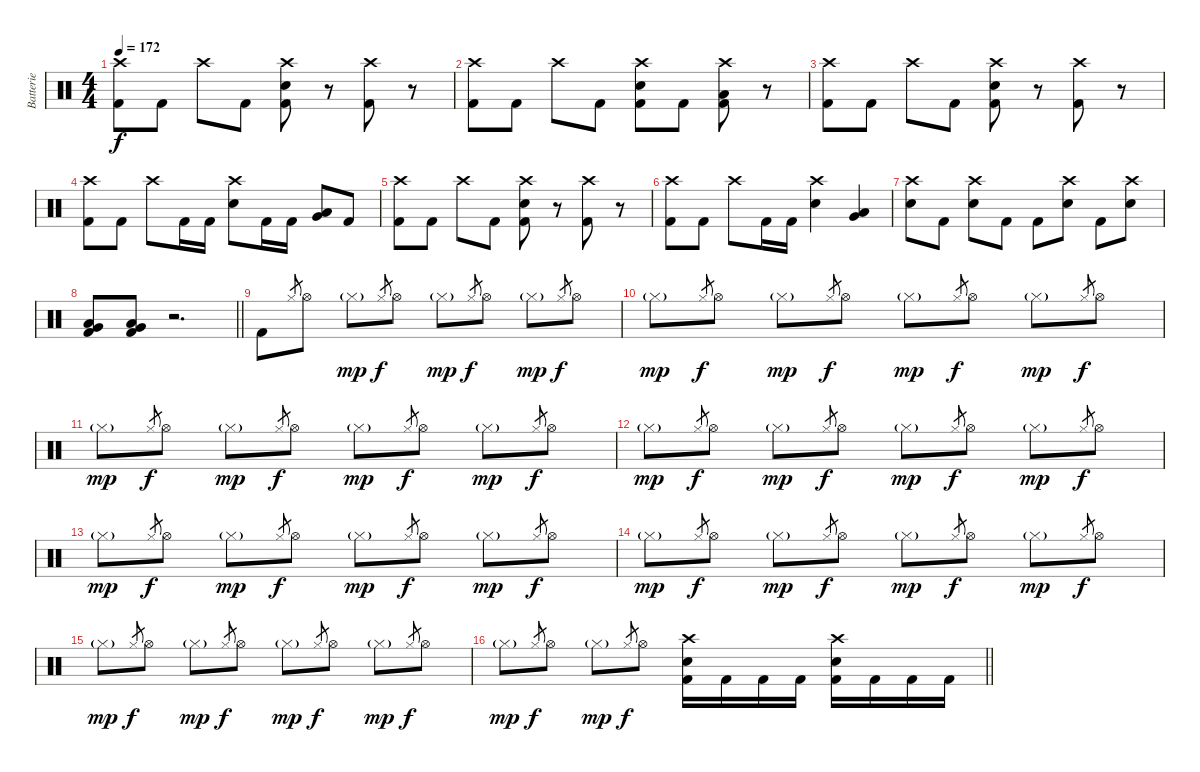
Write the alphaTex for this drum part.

\track ("Batterie" "Batterie") {instrument percussion}
\staff {score}
\articulation defaults
\ts (4 4)
\tempo 172
\clef neutral
\ks c
("Crash high (hit)" "Kick (hit) 2").8{dy f} "Kick (hit) 2".8 "Crash high (hit)".8 "Kick (hit) 2".8 ("Crash high (hit)" "Electric Snare (hit)" "Kick (hit) 2").8 r.8 ("Crash high (hit)" "Kick (hit) 2").8 r.8 |
("Crash high (hit)" "Kick (hit) 2").8 "Kick (hit) 2".8 "Crash high (hit)".8 "Kick (hit) 2".8 ("Crash high (hit)" "Electric Snare (hit)" "Kick (hit) 2").8 "Kick (hit) 2".8 ("Crash high (hit)" "Low Tom (hit)" "Kick (hit) 2").8 r.8 |
("Crash high (hit)" "Kick (hit) 2").8 "Kick (hit) 2".8 "Crash high (hit)".8 "Kick (hit) 2".8 ("Crash high (hit)" "Electric Snare (hit)" "Kick (hit) 2").8 r.8 ("Crash high (hit)" "Kick (hit) 2").8 r.8 |
("Crash high (hit)" "Kick (hit) 2").8 "Kick (hit) 2".8 "Crash high (hit)".8 "Kick (hit) 2".16 "Kick (hit) 2".16 ("Crash high (hit)" "Electric Snare (hit)").8 "Kick (hit) 2".16 "Kick (hit) 2".16 ("Low Tom (hit)" "Very Low Tom (hit)").8 "Kick (hit) 2".8 |
("Crash high (hit)" "Kick (hit) 2").8 "Kick (hit) 2".8 "Crash high (hit)".8 "Kick (hit) 2".8 ("Crash high (hit)" "Electric Snare (hit)" "Kick (hit) 2").8 r.8 ("Crash high (hit)" "Kick (hit) 2").8 r.8 |
("Crash high (hit)" "Kick (hit) 2").8 "Kick (hit) 2".8 "Crash high (hit)".8 "Kick (hit) 2".16 "Kick (hit) 2".16 ("Crash high (hit)" "Electric Snare (hit)").4 ("Low Tom (hit)" "Very Low Tom (hit)").4 |
("Crash high (hit)" "Electric Snare (hit)").8 "Kick (hit) 2".8 ("Crash high (hit)" "Electric Snare (hit)").8 "Kick (hit) 2".8 "Kick (hit) 2".8 ("Crash high (hit)" "Electric Snare (hit)").8 "Kick (hit) 2".8 ("Crash high (hit)" "Electric Snare (hit)").8 |
\barLineRight lightlight
("Low Tom (hit)" "Very Low Tom (hit)" "Kick (hit) 2").8 ("Low Tom (hit)" "Very Low Tom (hit)" "Kick (hit) 2").8 r.2{d} |
"Kick (hit) 2".8 "Hi-Hat (closed)".8{gr} "Hi-Hat (open)".8 "Hi-Hat (closed)"{g}.8{dy mp} "Hi-Hat (closed)".8{gr dy f} "Hi-Hat (open)".8 "Hi-Hat (closed)"{g}.8{dy mp} "Hi-Hat (closed)".8{gr dy f} "Hi-Hat (open)".8 "Hi-Hat (closed)"{g}.8{dy mp} "Hi-Hat (closed)".8{gr dy f} "Hi-Hat (open)".8 |
"Hi-Hat (closed)"{g}.8{dy mp} "Hi-Hat (closed)".8{gr dy f} "Hi-Hat (open)".8 "Hi-Hat (closed)"{g}.8{dy mp} "Hi-Hat (closed)".8{gr dy f} "Hi-Hat (open)".8 "Hi-Hat (closed)"{g}.8{dy mp} "Hi-Hat (closed)".8{gr dy f} "Hi-Hat (open)".8 "Hi-Hat (closed)"{g}.8{dy mp} "Hi-Hat (closed)".8{gr dy f} "Hi-Hat (open)".8 |
"Hi-Hat (closed)"{g}.8{dy mp} "Hi-Hat (closed)".8{gr dy f} "Hi-Hat (open)".8 "Hi-Hat (closed)"{g}.8{dy mp} "Hi-Hat (closed)".8{gr dy f} "Hi-Hat (open)".8 "Hi-Hat (closed)"{g}.8{dy mp} "Hi-Hat (closed)".8{gr dy f} "Hi-Hat (open)".8 "Hi-Hat (closed)"{g}.8{dy mp} "Hi-Hat (closed)".8{gr dy f} "Hi-Hat (open)".8 |
"Hi-Hat (closed)"{g}.8{dy mp} "Hi-Hat (closed)".8{gr dy f} "Hi-Hat (open)".8 "Hi-Hat (closed)"{g}.8{dy mp} "Hi-Hat (closed)".8{gr dy f} "Hi-Hat (open)".8 "Hi-Hat (closed)"{g}.8{dy mp} "Hi-Hat (closed)".8{gr dy f} "Hi-Hat (open)".8 "Hi-Hat (closed)"{g}.8{dy mp} "Hi-Hat (closed)".8{gr dy f} "Hi-Hat (open)".8 |
"Hi-Hat (closed)"{g}.8{dy mp} "Hi-Hat (closed)".8{gr dy f} "Hi-Hat (open)".8 "Hi-Hat (closed)"{g}.8{dy mp} "Hi-Hat (closed)".8{gr dy f} "Hi-Hat (open)".8 "Hi-Hat (closed)"{g}.8{dy mp} "Hi-Hat (closed)".8{gr dy f} "Hi-Hat (open)".8 "Hi-Hat (closed)"{g}.8{dy mp} "Hi-Hat (closed)".8{gr dy f} "Hi-Hat (open)".8 |
"Hi-Hat (closed)"{g}.8{dy mp} "Hi-Hat (closed)".8{gr dy f} "Hi-Hat (open)".8 "Hi-Hat (closed)"{g}.8{dy mp} "Hi-Hat (closed)".8{gr dy f} "Hi-Hat (open)".8 "Hi-Hat (closed)"{g}.8{dy mp} "Hi-Hat (closed)".8{gr dy f} "Hi-Hat (open)".8 "Hi-Hat (closed)"{g}.8{dy mp} "Hi-Hat (closed)".8{gr dy f} "Hi-Hat (open)".8 |
"Hi-Hat (closed)"{g}.8{dy mp} "Hi-Hat (closed)".8{gr dy f} "Hi-Hat (open)".8 "Hi-Hat (closed)"{g}.8{dy mp} "Hi-Hat (closed)".8{gr dy f} "Hi-Hat (open)".8 "Hi-Hat (closed)"{g}.8{dy mp} "Hi-Hat (closed)".8{gr dy f} "Hi-Hat (open)".8 "Hi-Hat (closed)"{g}.8{dy mp} "Hi-Hat (closed)".8{gr dy f} "Hi-Hat (open)".8 |
\barLineRight lightlight "Hi-Hat (closed)"{g}.8{dy mp} "Hi-Hat (closed)".8{gr dy f} "Hi-Hat (open)".8 "Hi-Hat (closed)"{g}.8{dy mp} "Hi-Hat (closed)".8{gr dy f} "Hi-Hat (open)".8
("Crash high (hit)" "Electric Snare (hit)" "Kick (hit) 2").16 "Kick (hit) 2".16 "Kick (hit) 2".16 "Kick (hit) 2".16 ("Crash high (hit)" "Electric Snare (hit)" "Kick (hit) 2").16 "Kick (hit) 2".16 "Kick (hit) 2".16 "Kick (hit) 2".16
